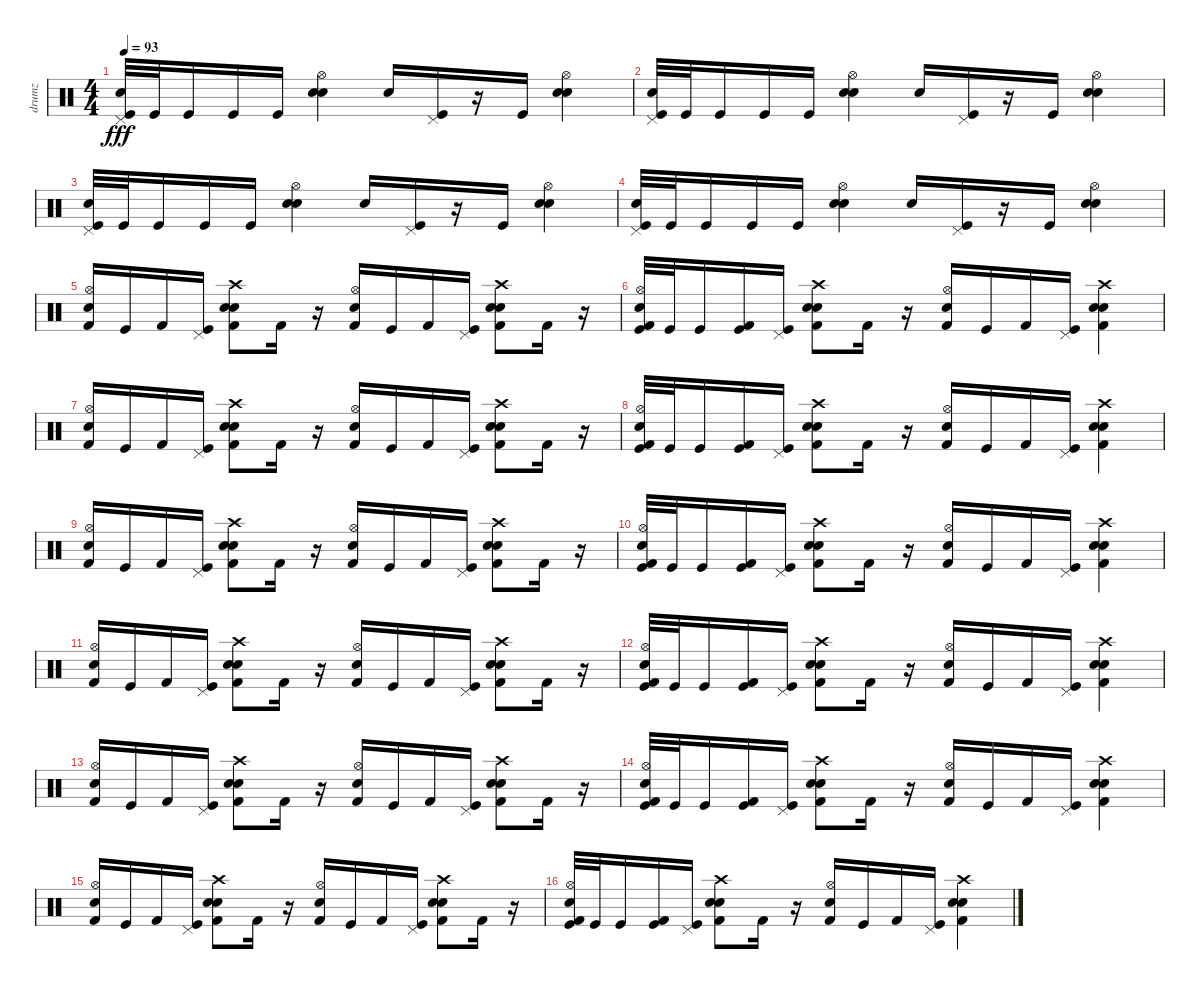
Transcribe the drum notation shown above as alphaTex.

\track ("drumz" "drumz") {instrument percussion}
\staff {score}
\articulation defaults
\ts (4 4)
\tempo 93
\clef neutral
\ks c
("Kick (hit)" "Pedal Hi-Hat (hit)" "Hand Clap (hit)").32{dy fff} "Kick (hit)".32 "Kick (hit)".16 "Kick (hit)".16 "Kick (hit)".16 ("Snare (hit) 2" "Hi-Hat (open)" "Hand Clap (hit)").4 "Hand Clap (hit)".16 ("Kick (hit)" "Pedal Hi-Hat (hit)").16 r.16 "Kick (hit)".16 ("Snare (hit) 2" "Hi-Hat (open)" "Hand Clap (hit)").4 |
("Kick (hit)" "Pedal Hi-Hat (hit)" "Hand Clap (hit)").32 "Kick (hit)".32 "Kick (hit)".16 "Kick (hit)".16 "Kick (hit)".16 ("Snare (hit) 2" "Hi-Hat (open)" "Hand Clap (hit)").4 "Hand Clap (hit)".16 ("Kick (hit)" "Pedal Hi-Hat (hit)").16 r.16 "Kick (hit)".16 ("Snare (hit) 2" "Hi-Hat (open)" "Hand Clap (hit)").4 |
("Kick (hit)" "Pedal Hi-Hat (hit)" "Hand Clap (hit)").32 "Kick (hit)".32 "Kick (hit)".16 "Kick (hit)".16 "Kick (hit)".16 ("Snare (hit) 2" "Hi-Hat (open)" "Hand Clap (hit)").4 "Hand Clap (hit)".16 ("Kick (hit)" "Pedal Hi-Hat (hit)").16 r.16 "Kick (hit)".16 ("Snare (hit) 2" "Hi-Hat (open)" "Hand Clap (hit)").4 |
("Kick (hit)" "Pedal Hi-Hat (hit)" "Hand Clap (hit)").32 "Kick (hit)".32 "Kick (hit)".16 "Kick (hit)".16 "Kick (hit)".16 ("Snare (hit) 2" "Hi-Hat (open)" "Hand Clap (hit)").4 "Hand Clap (hit)".16 ("Kick (hit)" "Pedal Hi-Hat (hit)").16 r.16 "Kick (hit)".16 ("Snare (hit) 2" "Hi-Hat (open)" "Hand Clap (hit)").4 |
("Hi-Hat (open)" "Hand Clap (hit)" "Kick (hit) 2").16 "Kick (hit)".16 "Kick (hit) 2".16 ("Kick (hit)" "Pedal Hi-Hat (hit)").16 ("Snare (hit) 2" "Crash high (hit)" "Hand Clap (hit)" "Kick (hit) 2").8 "Kick (hit) 2".16 r.16 ("Hi-Hat (open)" "Hand Clap (hit)" "Kick (hit) 2").16 "Kick (hit)".16 "Kick (hit) 2".16 ("Kick (hit)" "Pedal Hi-Hat (hit)").16 ("Snare (hit) 2" "Crash high (hit)" "Hand Clap (hit)" "Kick (hit) 2").8 "Kick (hit) 2".16 r.16 |
("Kick (hit)" "Hand Clap (hit)" "Hi-Hat (open)" "Kick (hit) 2").32 "Kick (hit)".32 "Kick (hit)".16 ("Kick (hit)" "Kick (hit) 2").16 ("Kick (hit)" "Pedal Hi-Hat (hit)").16 ("Snare (hit) 2" "Hand Clap (hit)" "Crash high (hit)" "Kick (hit) 2").8 "Kick (hit) 2".16 r.16 ("Hand Clap (hit)" "Hi-Hat (open)" "Kick (hit) 2").16 "Kick (hit)".16 "Kick (hit) 2".16 ("Kick (hit)" "Pedal Hi-Hat (hit)").16 ("Snare (hit) 2" "Hand Clap (hit)" "Crash high (hit)" "Kick (hit) 2").4 |
("Hi-Hat (open)" "Hand Clap (hit)" "Kick (hit) 2").16 "Kick (hit)".16 "Kick (hit) 2".16 ("Kick (hit)" "Pedal Hi-Hat (hit)").16 ("Snare (hit) 2" "Crash high (hit)" "Hand Clap (hit)" "Kick (hit) 2").8 "Kick (hit) 2".16 r.16 ("Hi-Hat (open)" "Hand Clap (hit)" "Kick (hit) 2").16 "Kick (hit)".16 "Kick (hit) 2".16 ("Kick (hit)" "Pedal Hi-Hat (hit)").16 ("Snare (hit) 2" "Crash high (hit)" "Hand Clap (hit)" "Kick (hit) 2").8 "Kick (hit) 2".16 r.16 |
("Kick (hit)" "Hand Clap (hit)" "Hi-Hat (open)" "Kick (hit) 2").32 "Kick (hit)".32 "Kick (hit)".16 ("Kick (hit)" "Kick (hit) 2").16 ("Kick (hit)" "Pedal Hi-Hat (hit)").16 ("Snare (hit) 2" "Hand Clap (hit)" "Crash high (hit)" "Kick (hit) 2").8 "Kick (hit) 2".16 r.16 ("Hand Clap (hit)" "Hi-Hat (open)" "Kick (hit) 2").16 "Kick (hit)".16 "Kick (hit) 2".16 ("Kick (hit)" "Pedal Hi-Hat (hit)").16 ("Snare (hit) 2" "Hand Clap (hit)" "Crash high (hit)" "Kick (hit) 2").4 |
("Hi-Hat (open)" "Hand Clap (hit)" "Kick (hit) 2").16 "Kick (hit)".16 "Kick (hit) 2".16 ("Kick (hit)" "Pedal Hi-Hat (hit)").16 ("Snare (hit) 2" "Crash high (hit)" "Hand Clap (hit)" "Kick (hit) 2").8 "Kick (hit) 2".16 r.16 ("Hi-Hat (open)" "Hand Clap (hit)" "Kick (hit) 2").16 "Kick (hit)".16 "Kick (hit) 2".16 ("Kick (hit)" "Pedal Hi-Hat (hit)").16 ("Snare (hit) 2" "Crash high (hit)" "Hand Clap (hit)" "Kick (hit) 2").8 "Kick (hit) 2".16 r.16 |
("Kick (hit)" "Hand Clap (hit)" "Hi-Hat (open)" "Kick (hit) 2").32 "Kick (hit)".32 "Kick (hit)".16 ("Kick (hit)" "Kick (hit) 2").16 ("Kick (hit)" "Pedal Hi-Hat (hit)").16 ("Snare (hit) 2" "Hand Clap (hit)" "Crash high (hit)" "Kick (hit) 2").8 "Kick (hit) 2".16 r.16 ("Hand Clap (hit)" "Hi-Hat (open)" "Kick (hit) 2").16 "Kick (hit)".16 "Kick (hit) 2".16 ("Kick (hit)" "Pedal Hi-Hat (hit)").16 ("Snare (hit) 2" "Hand Clap (hit)" "Crash high (hit)" "Kick (hit) 2").4 |
("Hi-Hat (open)" "Hand Clap (hit)" "Kick (hit) 2").16 "Kick (hit)".16 "Kick (hit) 2".16 ("Kick (hit)" "Pedal Hi-Hat (hit)").16 ("Snare (hit) 2" "Crash high (hit)" "Hand Clap (hit)" "Kick (hit) 2").8 "Kick (hit) 2".16 r.16 ("Hi-Hat (open)" "Hand Clap (hit)" "Kick (hit) 2").16 "Kick (hit)".16 "Kick (hit) 2".16 ("Kick (hit)" "Pedal Hi-Hat (hit)").16 ("Snare (hit) 2" "Crash high (hit)" "Hand Clap (hit)" "Kick (hit) 2").8 "Kick (hit) 2".16 r.16 |
("Kick (hit)" "Hand Clap (hit)" "Hi-Hat (open)" "Kick (hit) 2").32 "Kick (hit)".32 "Kick (hit)".16 ("Kick (hit)" "Kick (hit) 2").16 ("Kick (hit)" "Pedal Hi-Hat (hit)").16 ("Snare (hit) 2" "Hand Clap (hit)" "Crash high (hit)" "Kick (hit) 2").8 "Kick (hit) 2".16 r.16 ("Hand Clap (hit)" "Hi-Hat (open)" "Kick (hit) 2").16 "Kick (hit)".16 "Kick (hit) 2".16 ("Kick (hit)" "Pedal Hi-Hat (hit)").16 ("Snare (hit) 2" "Hand Clap (hit)" "Crash high (hit)" "Kick (hit) 2").4 |
("Hi-Hat (open)" "Hand Clap (hit)" "Kick (hit) 2").16 "Kick (hit)".16 "Kick (hit) 2".16 ("Kick (hit)" "Pedal Hi-Hat (hit)").16 ("Snare (hit) 2" "Crash high (hit)" "Hand Clap (hit)" "Kick (hit) 2").8 "Kick (hit) 2".16 r.16 ("Hi-Hat (open)" "Hand Clap (hit)" "Kick (hit) 2").16 "Kick (hit)".16 "Kick (hit) 2".16 ("Kick (hit)" "Pedal Hi-Hat (hit)").16 ("Snare (hit) 2" "Crash high (hit)" "Hand Clap (hit)" "Kick (hit) 2").8 "Kick (hit) 2".16 r.16 |
("Kick (hit)" "Hand Clap (hit)" "Hi-Hat (open)" "Kick (hit) 2").32 "Kick (hit)".32 "Kick (hit)".16 ("Kick (hit)" "Kick (hit) 2").16 ("Kick (hit)" "Pedal Hi-Hat (hit)").16 ("Snare (hit) 2" "Hand Clap (hit)" "Crash high (hit)" "Kick (hit) 2").8 "Kick (hit) 2".16 r.16 ("Hand Clap (hit)" "Hi-Hat (open)" "Kick (hit) 2").16 "Kick (hit)".16 "Kick (hit) 2".16 ("Kick (hit)" "Pedal Hi-Hat (hit)").16 ("Snare (hit) 2" "Hand Clap (hit)" "Crash high (hit)" "Kick (hit) 2").4 |
("Hi-Hat (open)" "Hand Clap (hit)" "Kick (hit) 2").16 "Kick (hit)".16 "Kick (hit) 2".16 ("Kick (hit)" "Pedal Hi-Hat (hit)").16 ("Snare (hit) 2" "Crash high (hit)" "Hand Clap (hit)" "Kick (hit) 2").8 "Kick (hit) 2".16 r.16 ("Hi-Hat (open)" "Hand Clap (hit)" "Kick (hit) 2").16 "Kick (hit)".16 "Kick (hit) 2".16 ("Kick (hit)" "Pedal Hi-Hat (hit)").16 ("Snare (hit) 2" "Crash high (hit)" "Hand Clap (hit)" "Kick (hit) 2").8 "Kick (hit) 2".16 r.16 |
("Kick (hit)" "Hand Clap (hit)" "Hi-Hat (open)" "Kick (hit) 2").32 "Kick (hit)".32 "Kick (hit)".16 ("Kick (hit)" "Kick (hit) 2").16 ("Kick (hit)" "Pedal Hi-Hat (hit)").16 ("Snare (hit) 2" "Hand Clap (hit)" "Crash high (hit)" "Kick (hit) 2").8 "Kick (hit) 2".16 r.16 ("Hand Clap (hit)" "Hi-Hat (open)" "Kick (hit) 2").16 "Kick (hit)".16 "Kick (hit) 2".16 ("Kick (hit)" "Pedal Hi-Hat (hit)").16 ("Snare (hit) 2" "Hand Clap (hit)" "Crash high (hit)" "Kick (hit) 2").4
